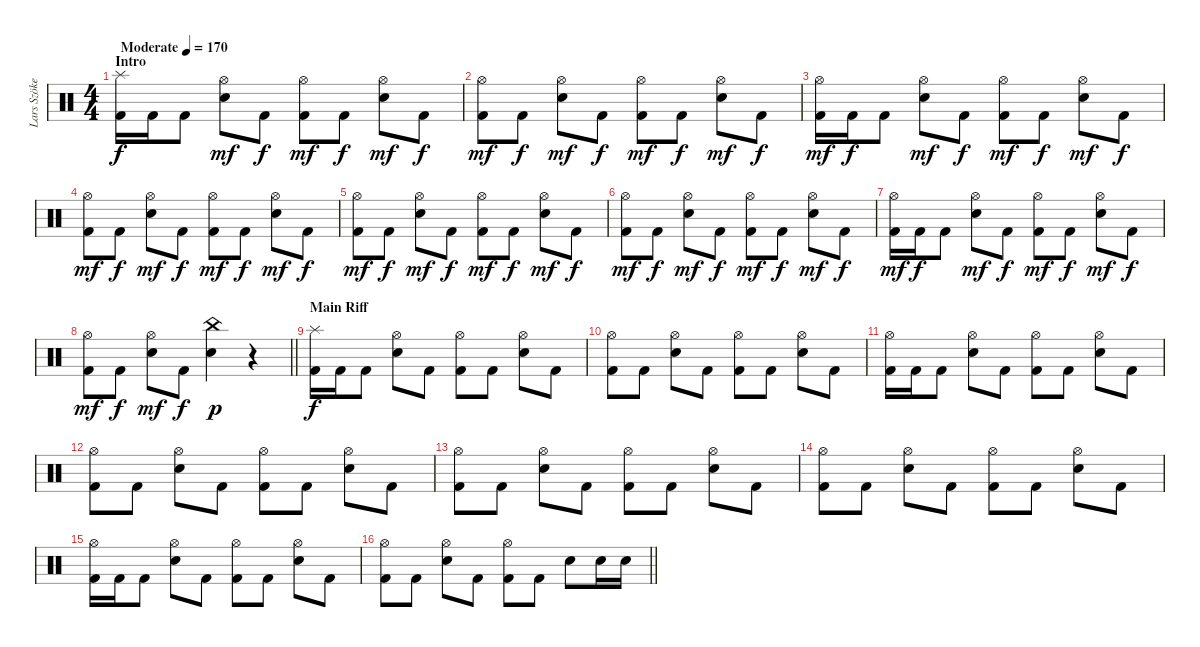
\track ("Lars Szöke" "Lars Szöke") {instrument percussion}
\staff {score}
\articulation defaults
\ts (4 4)
\section ("" "Intro")
\tempo (170 "Moderate")
\clef neutral
\ks c
("Splash (hit)" "Kick (hit) 2").16{dy f} "Kick (hit) 2".16 "Kick (hit) 2".8 ("Hi-Hat (open)" "Snare (hit) 2").8{dy mf} "Kick (hit) 2".8{dy f} ("Hi-Hat (open)" "Kick (hit) 2").8{dy mf} "Kick (hit) 2".8{dy f} ("Hi-Hat (open)" "Snare (hit) 2").8{dy mf} "Kick (hit) 2".8{dy f} |
("Hi-Hat (open)" "Kick (hit) 2").8{dy mf} "Kick (hit) 2".8{dy f} ("Hi-Hat (open)" "Snare (hit) 2").8{dy mf} "Kick (hit) 2".8{dy f} ("Hi-Hat (open)" "Kick (hit) 2").8{dy mf} "Kick (hit) 2".8{dy f} ("Hi-Hat (open)" "Snare (hit) 2").8{dy mf} "Kick (hit) 2".8{dy f} |
("Hi-Hat (open)" "Kick (hit) 2").16{dy mf} "Kick (hit) 2".16{dy f} "Kick (hit) 2".8 ("Hi-Hat (open)" "Snare (hit) 2").8{dy mf} "Kick (hit) 2".8{dy f} ("Hi-Hat (open)" "Kick (hit) 2").8{dy mf} "Kick (hit) 2".8{dy f} ("Hi-Hat (open)" "Snare (hit) 2").8{dy mf} "Kick (hit) 2".8{dy f} |
("Hi-Hat (open)" "Kick (hit) 2").8{dy mf} "Kick (hit) 2".8{dy f} ("Hi-Hat (open)" "Snare (hit) 2").8{dy mf} "Kick (hit) 2".8{dy f} ("Hi-Hat (open)" "Kick (hit) 2").8{dy mf} "Kick (hit) 2".8{dy f} ("Hi-Hat (open)" "Snare (hit) 2").8{dy mf} "Kick (hit) 2".8{dy f} |
("Hi-Hat (open)" "Kick (hit) 2").8{dy mf} "Kick (hit) 2".8{dy f} ("Hi-Hat (open)" "Snare (hit) 2").8{dy mf} "Kick (hit) 2".8{dy f} ("Hi-Hat (open)" "Kick (hit) 2").8{dy mf} "Kick (hit) 2".8{dy f} ("Hi-Hat (open)" "Snare (hit) 2").8{dy mf} "Kick (hit) 2".8{dy f} |
("Hi-Hat (open)" "Kick (hit) 2").8{dy mf} "Kick (hit) 2".8{dy f} ("Hi-Hat (open)" "Snare (hit) 2").8{dy mf} "Kick (hit) 2".8{dy f} ("Hi-Hat (open)" "Kick (hit) 2").8{dy mf} "Kick (hit) 2".8{dy f} ("Hi-Hat (open)" "Snare (hit) 2").8{dy mf} "Kick (hit) 2".8{dy f} |
("Hi-Hat (open)" "Kick (hit) 2").16{dy mf} "Kick (hit) 2".16{dy f} "Kick (hit) 2".8 ("Hi-Hat (open)" "Snare (hit) 2").8{dy mf} "Kick (hit) 2".8{dy f} ("Hi-Hat (open)" "Kick (hit) 2").8{dy mf} "Kick (hit) 2".8{dy f} ("Hi-Hat (open)" "Snare (hit) 2").8{dy mf} "Kick (hit) 2".8{dy f} |
\barLineRight lightlight
("Hi-Hat (open)" "Kick (hit) 2").8{dy mf} "Kick (hit) 2".8{dy f} ("Hi-Hat (open)" "Snare (hit) 2").8{dy mf} "Kick (hit) 2".8{dy f} ("China (hit)" "Snare (hit) 2").4{dy p} r.4 |
\section ("" "Main Riff")
("Splash (hit)" "Kick (hit) 2").16{dy f} "Kick (hit) 2".16 "Kick (hit) 2".8 ("Hi-Hat (open)" "Snare (hit) 2").8 "Kick (hit) 2".8 ("Hi-Hat (open)" "Kick (hit) 2").8 "Kick (hit) 2".8 ("Hi-Hat (open)" "Snare (hit) 2").8 "Kick (hit) 2".8 |
("Hi-Hat (open)" "Kick (hit) 2").8 "Kick (hit) 2".8 ("Hi-Hat (open)" "Snare (hit) 2").8 "Kick (hit) 2".8 ("Hi-Hat (open)" "Kick (hit) 2").8 "Kick (hit) 2".8 ("Hi-Hat (open)" "Snare (hit) 2").8 "Kick (hit) 2".8 |
("Hi-Hat (open)" "Kick (hit) 2").16 "Kick (hit) 2".16 "Kick (hit) 2".8 ("Hi-Hat (open)" "Snare (hit) 2").8 "Kick (hit) 2".8 ("Hi-Hat (open)" "Kick (hit) 2").8 "Kick (hit) 2".8 ("Hi-Hat (open)" "Snare (hit) 2").8 "Kick (hit) 2".8 |
("Hi-Hat (open)" "Kick (hit) 2").8 "Kick (hit) 2".8 ("Hi-Hat (open)" "Snare (hit) 2").8 "Kick (hit) 2".8 ("Hi-Hat (open)" "Kick (hit) 2").8 "Kick (hit) 2".8 ("Hi-Hat (open)" "Snare (hit) 2").8 "Kick (hit) 2".8 |
("Hi-Hat (open)" "Kick (hit) 2").8 "Kick (hit) 2".8 ("Hi-Hat (open)" "Snare (hit) 2").8 "Kick (hit) 2".8 ("Hi-Hat (open)" "Kick (hit) 2").8 "Kick (hit) 2".8 ("Hi-Hat (open)" "Snare (hit) 2").8 "Kick (hit) 2".8 |
("Hi-Hat (open)" "Kick (hit) 2").8 "Kick (hit) 2".8 ("Hi-Hat (open)" "Snare (hit) 2").8 "Kick (hit) 2".8 ("Hi-Hat (open)" "Kick (hit) 2").8 "Kick (hit) 2".8 ("Hi-Hat (open)" "Snare (hit) 2").8 "Kick (hit) 2".8 |
("Hi-Hat (open)" "Kick (hit) 2").16 "Kick (hit) 2".16 "Kick (hit) 2".8 ("Hi-Hat (open)" "Snare (hit) 2").8 "Kick (hit) 2".8 ("Hi-Hat (open)" "Kick (hit) 2").8 "Kick (hit) 2".8 ("Hi-Hat (open)" "Snare (hit) 2").8 "Kick (hit) 2".8 |
\barLineRight lightlight
("Hi-Hat (open)" "Kick (hit) 2").8 "Kick (hit) 2".8 ("Hi-Hat (open)" "Snare (hit) 2").8 "Kick (hit) 2".8 ("Hi-Hat (open)" "Kick (hit) 2").8 "Kick (hit) 2".8 "Snare (hit) 2".8 "Snare (hit) 2".16 "Snare (hit) 2".16
